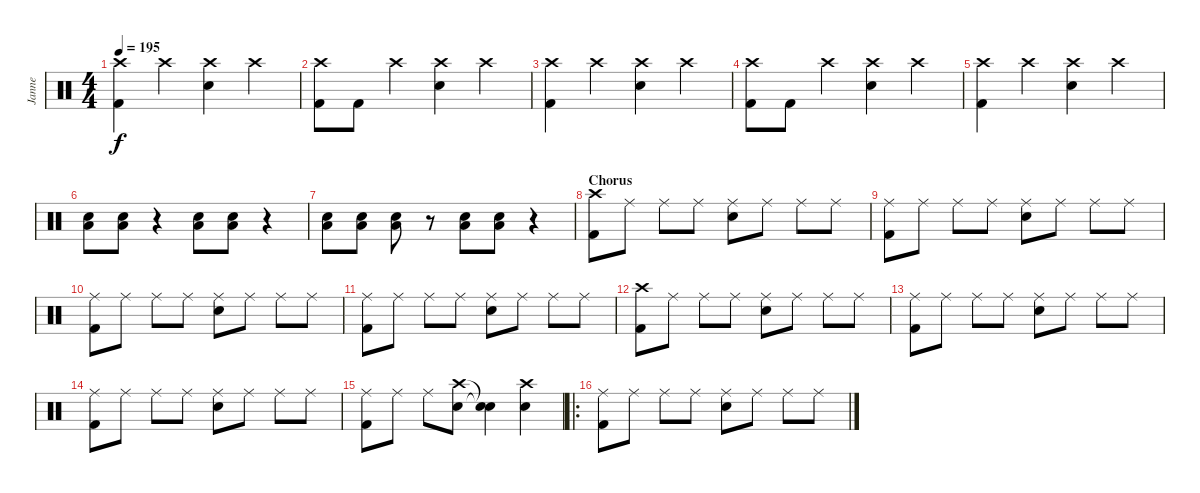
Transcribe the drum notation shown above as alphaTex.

\track ("Janne" "Janne") {instrument percussion}
\staff {score}
\articulation defaults
\ts (4 4)
\tempo 195
\clef neutral
\ks c
("Crash high (hit)" "Kick (hit) 2").4{dy f} "Crash high (hit)".4 ("Crash high (hit)" "Electric Snare (hit)").4 "Crash high (hit)".4 |
("Crash high (hit)" "Kick (hit) 2").8 "Kick (hit) 2".8 "Crash high (hit)".4 ("Crash high (hit)" "Electric Snare (hit)").4 "Crash high (hit)".4 |
("Crash high (hit)" "Kick (hit) 2").4 "Crash high (hit)".4 ("Crash high (hit)" "Electric Snare (hit)").4 "Crash high (hit)".4 |
("Crash high (hit)" "Kick (hit) 2").8 "Kick (hit) 2".8 "Crash high (hit)".4 ("Crash high (hit)" "Electric Snare (hit)").4 "Crash high (hit)".4 |
("Crash high (hit)" "Kick (hit) 2").4 "Crash high (hit)".4 ("Crash high (hit)" "Electric Snare (hit)").4 "Crash high (hit)".4 |
("Low Floor Tom (hit)" "Electric Snare (hit)").8 ("Low Floor Tom (hit)" "Electric Snare (hit)").8 r.4 ("Low Floor Tom (hit)" "Electric Snare (hit)").8 ("Low Floor Tom (hit)" "Electric Snare (hit)").8 r.4 |
("Low Floor Tom (hit)" "Electric Snare (hit)").8 ("Low Floor Tom (hit)" "Electric Snare (hit)").8 ("Low Floor Tom (hit)" "Electric Snare (hit)").8 r.8 ("Low Floor Tom (hit)" "Electric Snare (hit)").8 ("Low Floor Tom (hit)" "Electric Snare (hit)").8 r.4 |
\section ("" "Chorus")
("Crash high (hit)" "Kick (hit) 2").8 "Ride (middle)".8 "Ride (middle)".8 "Ride (middle)".8 ("Ride (middle)" "Electric Snare (hit)").8 "Ride (middle)".8 "Ride (middle)".8 "Ride (middle)".8 |
("Ride (middle)" "Kick (hit) 2").8 "Ride (middle)".8 "Ride (middle)".8 "Ride (middle)".8 ("Ride (middle)" "Electric Snare (hit)").8 "Ride (middle)".8 "Ride (middle)".8 "Ride (middle)".8 |
("Ride (middle)" "Kick (hit) 2").8 "Ride (middle)".8 "Ride (middle)".8 "Ride (middle)".8 ("Ride (middle)" "Electric Snare (hit)").8 "Ride (middle)".8 "Ride (middle)".8 "Ride (middle)".8 |
("Ride (middle)" "Kick (hit) 2").8 "Ride (middle)".8 "Ride (middle)".8 "Ride (middle)".8 ("Ride (middle)" "Electric Snare (hit)").8 "Ride (middle)".8 "Ride (middle)".8 "Ride (middle)".8 |
("Crash high (hit)" "Kick (hit) 2").8 "Ride (middle)".8 "Ride (middle)".8 "Ride (middle)".8 ("Ride (middle)" "Electric Snare (hit)").8 "Ride (middle)".8 "Ride (middle)".8 "Ride (middle)".8 |
("Ride (middle)" "Kick (hit) 2").8 "Ride (middle)".8 "Ride (middle)".8 "Ride (middle)".8 ("Ride (middle)" "Electric Snare (hit)").8 "Ride (middle)".8 "Ride (middle)".8 "Ride (middle)".8 |
("Ride (middle)" "Kick (hit) 2").8 "Ride (middle)".8 "Ride (middle)".8 "Ride (middle)".8 ("Ride (middle)" "Electric Snare (hit)").8 "Ride (middle)".8 "Ride (middle)".8 "Ride (middle)".8 |
("Ride (middle)" "Kick (hit) 2").8 "Ride (middle)".8 "Ride (middle)".8 ("Crash high (hit)" "Electric Snare (hit)").8 ("Snare (hit)"{t} "Snare (hit)"{t}).4 ("Crash high (hit)" "Electric Snare (hit)").4 |
\ro
("Ride (middle)" "Kick (hit) 2").8 "Ride (middle)".8 "Ride (middle)".8 "Ride (middle)".8 ("Ride (middle)" "Electric Snare (hit)").8 "Ride (middle)".8 "Ride (middle)".8 "Ride (middle)".8
